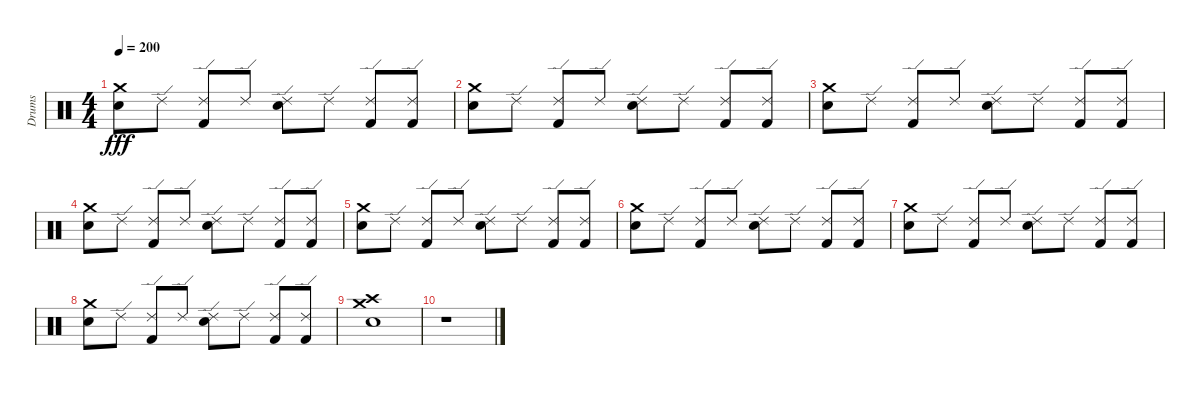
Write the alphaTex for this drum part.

\track ("Drums" "Drums") {instrument percussion}
\staff {score}
\articulation defaults
\ts (4 4)
\tempo 200
\clef neutral
\ks c
("Crash medium (hit)" "Electric Snare (hit)").8{dy fff} "Ride (edge) 2".8 ("Ride (edge) 2" "Kick (hit) 2").8 "Ride (edge) 2".8 ("Ride (edge) 2" "Electric Snare (hit)").8 "Ride (edge) 2".8 ("Ride (edge) 2" "Kick (hit) 2").8 ("Ride (edge) 2" "Kick (hit) 2").8 |
("Crash medium (hit)" "Electric Snare (hit)").8 "Ride (edge) 2".8 ("Ride (edge) 2" "Kick (hit) 2").8 "Ride (edge) 2".8 ("Ride (edge) 2" "Electric Snare (hit)").8 "Ride (edge) 2".8 ("Ride (edge) 2" "Kick (hit) 2").8 ("Ride (edge) 2" "Kick (hit) 2").8 |
("Crash medium (hit)" "Electric Snare (hit)").8 "Ride (edge) 2".8 ("Ride (edge) 2" "Kick (hit) 2").8 "Ride (edge) 2".8 ("Ride (edge) 2" "Electric Snare (hit)").8 "Ride (edge) 2".8 ("Ride (edge) 2" "Kick (hit) 2").8 ("Ride (edge) 2" "Kick (hit) 2").8 |
("Crash medium (hit)" "Electric Snare (hit)").8 "Ride (edge) 2".8 ("Ride (edge) 2" "Kick (hit) 2").8 "Ride (edge) 2".8 ("Ride (edge) 2" "Electric Snare (hit)").8 "Ride (edge) 2".8 ("Ride (edge) 2" "Kick (hit) 2").8 ("Ride (edge) 2" "Kick (hit) 2").8 |
("Crash medium (hit)" "Electric Snare (hit)").8 "Ride (edge) 2".8 ("Ride (edge) 2" "Kick (hit) 2").8 "Ride (edge) 2".8 ("Ride (edge) 2" "Electric Snare (hit)").8 "Ride (edge) 2".8 ("Ride (edge) 2" "Kick (hit) 2").8 ("Ride (edge) 2" "Kick (hit) 2").8 |
("Crash medium (hit)" "Electric Snare (hit)").8 "Ride (edge) 2".8 ("Ride (edge) 2" "Kick (hit) 2").8 "Ride (edge) 2".8 ("Ride (edge) 2" "Electric Snare (hit)").8 "Ride (edge) 2".8 ("Ride (edge) 2" "Kick (hit) 2").8 ("Ride (edge) 2" "Kick (hit) 2").8 |
("Crash medium (hit)" "Electric Snare (hit)").8 "Ride (edge) 2".8 ("Ride (edge) 2" "Kick (hit) 2").8 "Ride (edge) 2".8 ("Ride (edge) 2" "Electric Snare (hit)").8 "Ride (edge) 2".8 ("Ride (edge) 2" "Kick (hit) 2").8 ("Ride (edge) 2" "Kick (hit) 2").8 |
("Crash medium (hit)" "Electric Snare (hit)").8 "Ride (edge) 2".8 ("Ride (edge) 2" "Kick (hit) 2").8 "Ride (edge) 2".8 ("Ride (edge) 2" "Electric Snare (hit)").8 "Ride (edge) 2".8 ("Ride (edge) 2" "Kick (hit) 2").8 ("Ride (edge) 2" "Kick (hit) 2").8 |
("Crash medium (hit)" "Crash high (hit)" "Electric Snare (hit)").1 |
r.1
